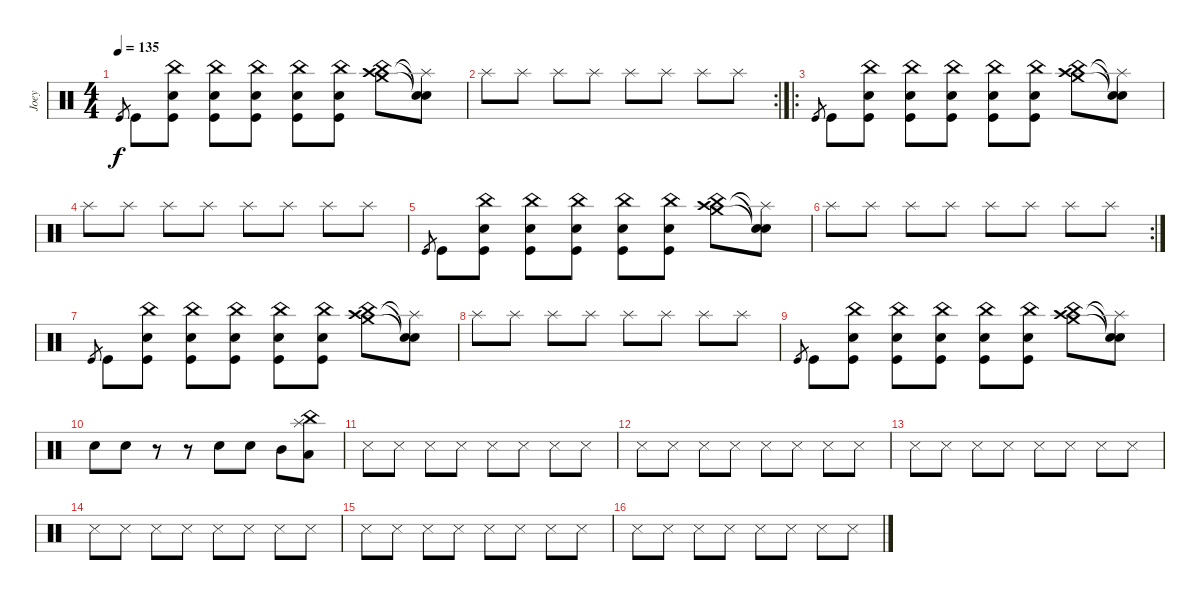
\track ("Joey" "Joey") {instrument percussion}
\staff {score}
\articulation defaults
\ts (4 4)
\tempo 135
\clef neutral
\ks c "Kick (hit)".8{gr dy f} "Kick (hit)".8
("Kick (hit)" "Snare (hit) 2" "China (hit)").8 ("Kick (hit)" "Snare (hit) 2" "China (hit)").8 ("Kick (hit)" "Snare (hit) 2" "China (hit)").8 ("Kick (hit)" "Snare (hit) 2" "China (hit)").8 ("Kick (hit)" "Snare (hit) 2" "China (hit)").8 ("Crash medium (hit)" "Crash high (hit)" "China (hit)").8 ("Snare (hit)"{t} "Splash (hit)"{t} "Snare (hit)"{t}).8 |
\rc 2 "Splash (hit)".8 "Splash (hit)".8 "Splash (hit)".8 "Splash (hit)".8 "Splash (hit)".8 "Splash (hit)".8 "Splash (hit)".8 "Splash (hit)".8
|
\ro "Kick (hit)".8{gr} "Kick (hit)".8
("Kick (hit)" "Snare (hit) 2" "China (hit)").8 ("Kick (hit)" "Snare (hit) 2" "China (hit)").8 ("Kick (hit)" "Snare (hit) 2" "China (hit)").8 ("Kick (hit)" "Snare (hit) 2" "China (hit)").8 ("Kick (hit)" "Snare (hit) 2" "China (hit)").8 ("Crash medium (hit)" "Crash high (hit)" "China (hit)").8 ("Snare (hit)"{t} "Splash (hit)"{t} "Snare (hit)"{t}).8 |
"Splash (hit)".8 "Splash (hit)".8 "Splash (hit)".8 "Splash (hit)".8 "Splash (hit)".8 "Splash (hit)".8 "Splash (hit)".8 "Splash (hit)".8 |
"Kick (hit)".8{gr} "Kick (hit)".8 ("Kick (hit)" "Snare (hit) 2" "China (hit)").8 ("Kick (hit)" "Snare (hit) 2" "China (hit)").8 ("Kick (hit)" "Snare (hit) 2" "China (hit)").8 ("Kick (hit)" "Snare (hit) 2" "China (hit)").8 ("Kick (hit)" "Snare (hit) 2" "China (hit)").8 ("Crash medium (hit)" "Crash high (hit)" "China (hit)").8 ("Snare (hit)"{t} "Splash (hit)"{t} "Snare (hit)"{t}).8 |
\rc 2 "Splash (hit)".8 "Splash (hit)".8 "Splash (hit)".8 "Splash (hit)".8 "Splash (hit)".8 "Splash (hit)".8 "Splash (hit)".8 "Splash (hit)".8
|
"Kick (hit)".8{gr} "Kick (hit)".8 ("Kick (hit)" "Snare (hit) 2" "China (hit)").8 ("Kick (hit)" "Snare (hit) 2" "China (hit)").8 ("Kick (hit)" "Snare (hit) 2" "China (hit)").8 ("Kick (hit)" "Snare (hit) 2" "China (hit)").8 ("Kick (hit)" "Snare (hit) 2" "China (hit)").8 ("Crash medium (hit)" "Crash high (hit)" "China (hit)").8 ("Snare (hit)"{t} "Splash (hit)"{t} "Snare (hit)"{t}).8 |
"Splash (hit)".8 "Splash (hit)".8 "Splash (hit)".8 "Splash (hit)".8 "Splash (hit)".8 "Splash (hit)".8 "Splash (hit)".8 "Splash (hit)".8 |
"Kick (hit)".8{gr} "Kick (hit)".8 ("Kick (hit)" "Snare (hit) 2" "China (hit)").8 ("Kick (hit)" "Snare (hit) 2" "China (hit)").8 ("Kick (hit)" "Snare (hit) 2" "China (hit)").8 ("Kick (hit)" "Snare (hit) 2" "China (hit)").8 ("Kick (hit)" "Snare (hit) 2" "China (hit)").8 ("Crash medium (hit)" "Crash high (hit)" "China (hit)").8 ("Snare (hit)"{t} "Splash (hit)"{t} "Snare (hit)"{t}).8 |
"Electric Snare (hit)".8 "Electric Snare (hit)".8 r.8 r.8 "Electric Snare (hit)".8 "Snare (hit) 2".8 "Mid Tom (hit)".8 ("Low Tom (hit)" "China (hit)" "Splash (hit)").8 |
"Snare (side stick) 3".8 "Snare (side stick) 3".8 "Snare (side stick) 3".8 "Snare (side stick) 3".8 "Snare (side stick) 3".8 "Snare (side stick) 3".8 "Snare (side stick) 3".8 "Snare (side stick) 3".8 |
"Snare (side stick) 3".8 "Snare (side stick) 3".8 "Snare (side stick) 3".8 "Snare (side stick) 3".8 "Snare (side stick) 3".8 "Snare (side stick) 3".8 "Snare (side stick) 3".8 "Snare (side stick) 3".8 |
"Snare (side stick) 3".8 "Snare (side stick) 3".8 "Snare (side stick) 3".8 "Snare (side stick) 3".8 "Snare (side stick) 3".8 "Snare (side stick) 3".8 "Snare (side stick) 3".8 "Snare (side stick) 3".8 |
"Snare (side stick) 3".8 "Snare (side stick) 3".8 "Snare (side stick) 3".8 "Snare (side stick) 3".8 "Snare (side stick) 3".8 "Snare (side stick) 3".8 "Snare (side stick) 3".8 "Snare (side stick) 3".8 |
"Snare (side stick) 3".8 "Snare (side stick) 3".8 "Snare (side stick) 3".8 "Snare (side stick) 3".8 "Snare (side stick) 3".8 "Snare (side stick) 3".8 "Snare (side stick) 3".8 "Snare (side stick) 3".8 |
"Snare (side stick) 3".8 "Snare (side stick) 3".8 "Snare (side stick) 3".8 "Snare (side stick) 3".8 "Snare (side stick) 3".8 "Snare (side stick) 3".8 "Snare (side stick) 3".8 "Snare (side stick) 3".8
